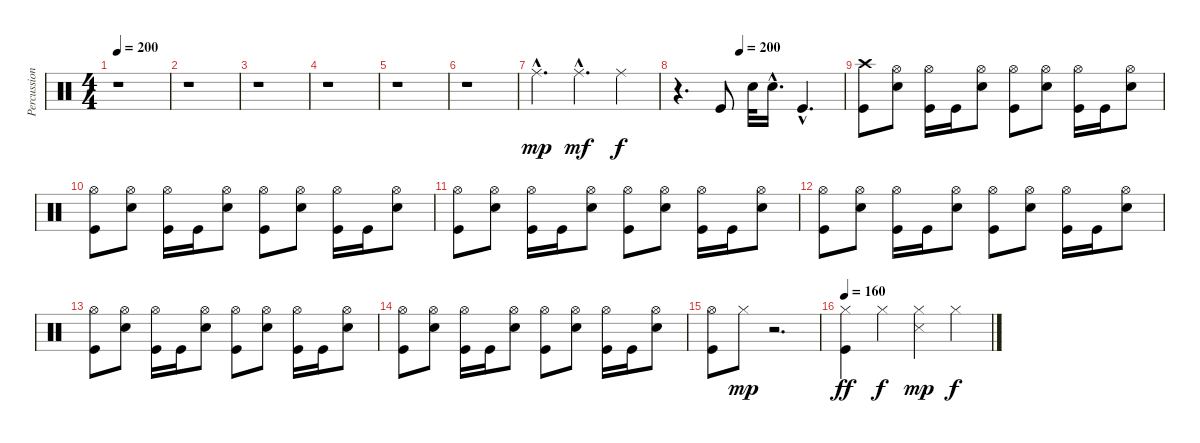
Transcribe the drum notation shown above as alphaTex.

\track ("Percussion" "Percussion") {instrument percussion}
\staff {score}
\articulation defaults
\ts (4 4)
\tempo 200
\tempo 190
\tempo 200
\clef neutral
\ks c
r.1{dy mp} |
r.1 |
r.1 |
r.1 |
r.1 |
r.1 |
"Ride (middle)"{hac}.4{d} "Ride (middle)"{hac}.4{d dy mf} "Ride (middle)".4{dy f} |
\tempo (200 0.375)
r.4{d} "Kick (hit)".8 "Electric Snare (hit)".32 "Electric Snare (hit)"{hac}.16{d} "Kick (hit)"{hac}.4{d} |
("Crash high (hit)" "Kick (hit)").8 ("Hi-Hat (open)" "Electric Snare (hit)").8 ("Hi-Hat (open)" "Kick (hit)").16 "Kick (hit)".16 ("Hi-Hat (open)" "Electric Snare (hit)").8 ("Hi-Hat (open)" "Kick (hit)").8 ("Hi-Hat (open)" "Electric Snare (hit)").8 ("Hi-Hat (open)" "Kick (hit)").16 "Kick (hit)".16 ("Hi-Hat (open)" "Electric Snare (hit)").8 |
("Hi-Hat (open)" "Kick (hit)").8 ("Hi-Hat (open)" "Electric Snare (hit)").8 ("Hi-Hat (open)" "Kick (hit)").16 "Kick (hit)".16 ("Hi-Hat (open)" "Electric Snare (hit)").8 ("Hi-Hat (open)" "Kick (hit)").8 ("Hi-Hat (open)" "Electric Snare (hit)").8 ("Hi-Hat (open)" "Kick (hit)").16 "Kick (hit)".16 ("Hi-Hat (open)" "Electric Snare (hit)").8 |
("Hi-Hat (open)" "Kick (hit)").8 ("Hi-Hat (open)" "Electric Snare (hit)").8 ("Hi-Hat (open)" "Kick (hit)").16 "Kick (hit)".16 ("Hi-Hat (open)" "Electric Snare (hit)").8 ("Hi-Hat (open)" "Kick (hit)").8 ("Hi-Hat (open)" "Electric Snare (hit)").8 ("Hi-Hat (open)" "Kick (hit)").16 "Kick (hit)".16 ("Hi-Hat (open)" "Electric Snare (hit)").8 |
("Hi-Hat (open)" "Kick (hit)").8 ("Hi-Hat (open)" "Electric Snare (hit)").8 ("Hi-Hat (open)" "Kick (hit)").16 "Kick (hit)".16 ("Hi-Hat (open)" "Electric Snare (hit)").8 ("Hi-Hat (open)" "Kick (hit)").8 ("Hi-Hat (open)" "Electric Snare (hit)").8 ("Hi-Hat (open)" "Kick (hit)").16 "Kick (hit)".16 ("Hi-Hat (open)" "Electric Snare (hit)").8 |
("Hi-Hat (open)" "Kick (hit)").8 ("Hi-Hat (open)" "Electric Snare (hit)").8 ("Hi-Hat (open)" "Kick (hit)").16 "Kick (hit)".16 ("Hi-Hat (open)" "Electric Snare (hit)").8 ("Hi-Hat (open)" "Kick (hit)").8 ("Hi-Hat (open)" "Electric Snare (hit)").8 ("Hi-Hat (open)" "Kick (hit)").16 "Kick (hit)".16 ("Hi-Hat (open)" "Electric Snare (hit)").8 |
("Hi-Hat (open)" "Kick (hit)").8 ("Hi-Hat (open)" "Electric Snare (hit)").8 ("Hi-Hat (open)" "Kick (hit)").16 "Kick (hit)".16 ("Hi-Hat (open)" "Electric Snare (hit)").8 ("Hi-Hat (open)" "Kick (hit)").8 ("Hi-Hat (open)" "Electric Snare (hit)").8 ("Hi-Hat (open)" "Kick (hit)").16 "Kick (hit)".16 ("Hi-Hat (open)" "Electric Snare (hit)").8 |
("Hi-Hat (open)" "Kick (hit)").8 "Hi-Hat (closed)".8{dy mp} r.2{d} |
\tempo 160
("Hi-Hat (closed)" "Kick (hit)").4{dy ff} "Hi-Hat (closed)".4{dy f} ("Hi-Hat (closed)" "Snare (side stick) 3").4{dy mp} "Hi-Hat (closed)".4{dy f}
